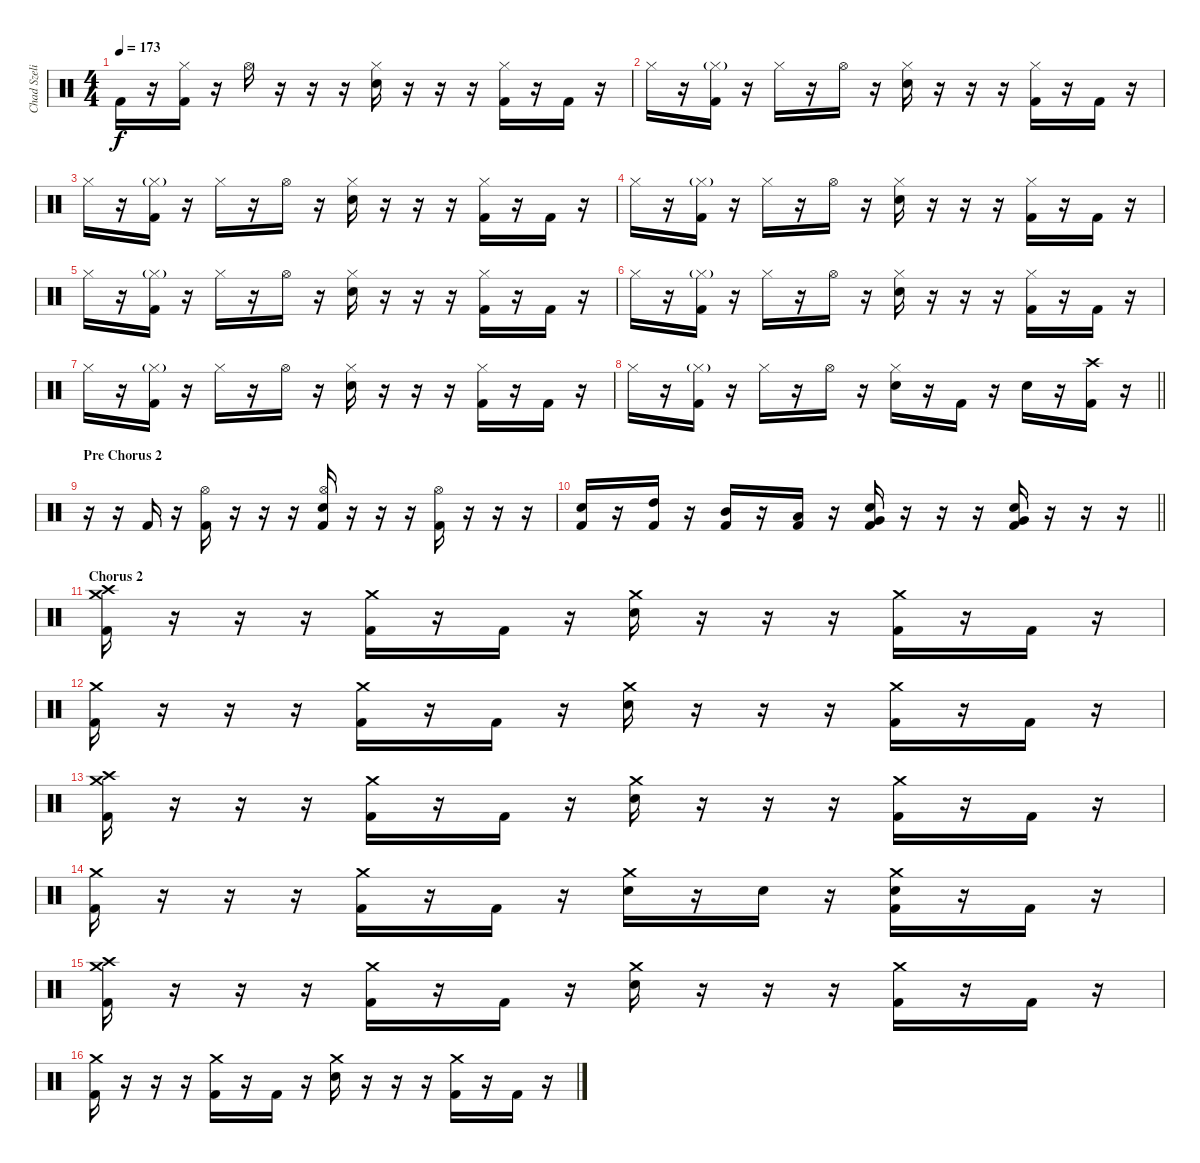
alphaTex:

\track ("Chad Szeliga" "Chad Szeli") {instrument percussion}
\staff {score}
\articulation defaults
\ts (4 4)
\tempo 173
\clef neutral
\ks c "Kick (hit) 2".16{dy f}
r.16 ("Hi-Hat (closed)" "Kick (hit) 2").16 r.16 "Hi-Hat (open)".16 r.16 r.16 r.16 ("Hi-Hat (closed)" "Electric Snare (hit)").16 r.16 r.16 r.16 ("Hi-Hat (closed)" "Kick (hit) 2").16 r.16 "Kick (hit) 2".16 r.16 |
"Hi-Hat (closed)".16 r.16 ("Hi-Hat (closed)"{g} "Kick (hit) 2").16 r.16 "Hi-Hat (closed)".16 r.16 "Hi-Hat (open)".16 r.16 ("Hi-Hat (closed)" "Electric Snare (hit)").16 r.16 r.16 r.16 ("Hi-Hat (closed)" "Kick (hit) 2").16 r.16 "Kick (hit) 2".16 r.16 |
"Hi-Hat (closed)".16 r.16 ("Hi-Hat (closed)"{g} "Kick (hit) 2").16 r.16 "Hi-Hat (closed)".16 r.16 "Hi-Hat (open)".16 r.16 ("Hi-Hat (closed)" "Electric Snare (hit)").16 r.16 r.16 r.16 ("Hi-Hat (closed)" "Kick (hit) 2").16 r.16 "Kick (hit) 2".16 r.16 |
"Hi-Hat (closed)".16 r.16 ("Hi-Hat (closed)"{g} "Kick (hit) 2").16 r.16 "Hi-Hat (closed)".16 r.16 "Hi-Hat (open)".16 r.16 ("Hi-Hat (closed)" "Electric Snare (hit)").16 r.16 r.16 r.16 ("Hi-Hat (closed)" "Kick (hit) 2").16 r.16 "Kick (hit) 2".16 r.16 |
"Hi-Hat (closed)".16 r.16 ("Hi-Hat (closed)"{g} "Kick (hit) 2").16 r.16 "Hi-Hat (closed)".16 r.16 "Hi-Hat (open)".16 r.16 ("Hi-Hat (closed)" "Electric Snare (hit)").16 r.16 r.16 r.16 ("Hi-Hat (closed)" "Kick (hit) 2").16 r.16 "Kick (hit) 2".16 r.16 |
"Hi-Hat (closed)".16 r.16 ("Hi-Hat (closed)"{g} "Kick (hit) 2").16 r.16 "Hi-Hat (closed)".16 r.16 "Hi-Hat (open)".16 r.16 ("Hi-Hat (closed)" "Electric Snare (hit)").16 r.16 r.16 r.16 ("Hi-Hat (closed)" "Kick (hit) 2").16 r.16 "Kick (hit) 2".16 r.16 |
"Hi-Hat (closed)".16 r.16 ("Hi-Hat (closed)"{g} "Kick (hit) 2").16 r.16 "Hi-Hat (closed)".16 r.16 "Hi-Hat (open)".16 r.16 ("Hi-Hat (closed)" "Electric Snare (hit)").16 r.16 r.16 r.16 ("Hi-Hat (closed)" "Kick (hit) 2").16 r.16 "Kick (hit) 2".16 r.16 |
\barLineRight lightlight "Hi-Hat (closed)".16
r.16 ("Hi-Hat (closed)"{g} "Kick (hit) 2").16 r.16 "Hi-Hat (closed)".16 r.16 "Hi-Hat (open)".16 r.16 ("Hi-Hat (closed)" "Electric Snare (hit)").16 r.16 "Kick (hit) 2".16 r.16 "Electric Snare (hit)".16 r.16 ("Crash high (hit)" "Kick (hit) 2").16 r.16 |
\section ("" "Pre Chorus 2")
r.16 r.16 "Kick (hit) 2".16 r.16 ("Hi-Hat (open)" "Kick (hit) 2").16 r.16 r.16 r.16 ("Hi-Hat (open)" "Electric Snare (hit)" "Kick (hit) 2").16 r.16 r.16 r.16 ("Hi-Hat (open)" "Kick (hit) 2").16 r.16 r.16 r.16 |
\barLineRight lightlight
("Electric Snare (hit)" "Kick (hit) 2").16 r.16 ("High Tom (hit)" "Kick (hit) 2").16 r.16 ("Mid Tom (hit)" "Kick (hit) 2").16 r.16 ("Low Tom (hit)" "Kick (hit) 2").16 r.16 ("Electric Snare (hit)" "Very Low Tom (hit)" "Kick (hit) 2").16 r.16 r.16 r.16 ("Electric Snare (hit)" "Very Low Tom (hit)" "Kick (hit) 2").16 r.16 r.16 r.16 |
\section ("" "Chorus 2")
("Crash medium (hit)" "Crash high (hit)" "Kick (hit) 2").16 r.16 r.16 r.16 ("Crash medium (hit)" "Kick (hit) 2").16 r.16 "Kick (hit) 2".16 r.16 ("Crash medium (hit)" "Electric Snare (hit)").16 r.16 r.16 r.16 ("Crash medium (hit)" "Kick (hit) 2").16 r.16 "Kick (hit) 2".16 r.16 |
("Crash medium (hit)" "Kick (hit) 2").16 r.16 r.16 r.16 ("Crash medium (hit)" "Kick (hit) 2").16 r.16 "Kick (hit) 2".16 r.16 ("Crash medium (hit)" "Electric Snare (hit)").16 r.16 r.16 r.16 ("Crash medium (hit)" "Kick (hit) 2").16 r.16 "Kick (hit) 2".16 r.16 |
("Crash medium (hit)" "Crash high (hit)" "Kick (hit) 2").16 r.16 r.16 r.16 ("Crash medium (hit)" "Kick (hit) 2").16 r.16 "Kick (hit) 2".16 r.16 ("Crash medium (hit)" "Electric Snare (hit)").16 r.16 r.16 r.16 ("Crash medium (hit)" "Kick (hit) 2").16 r.16 "Kick (hit) 2".16 r.16 |
("Crash medium (hit)" "Kick (hit) 2").16 r.16 r.16 r.16 ("Crash medium (hit)" "Kick (hit) 2").16 r.16 "Kick (hit) 2".16 r.16 ("Crash medium (hit)" "Electric Snare (hit)").16 r.16 "Electric Snare (hit)".16 r.16 ("Crash medium (hit)" "Electric Snare (hit)" "Kick (hit) 2").16 r.16 "Kick (hit) 2".16 r.16 |
("Crash medium (hit)" "Crash high (hit)" "Kick (hit) 2").16 r.16 r.16 r.16 ("Crash medium (hit)" "Kick (hit) 2").16 r.16 "Kick (hit) 2".16 r.16 ("Crash medium (hit)" "Electric Snare (hit)").16 r.16 r.16 r.16 ("Crash medium (hit)" "Kick (hit) 2").16 r.16 "Kick (hit) 2".16 r.16 |
("Crash medium (hit)" "Kick (hit) 2").16 r.16 r.16 r.16 ("Crash medium (hit)" "Kick (hit) 2").16 r.16 "Kick (hit) 2".16 r.16 ("Crash medium (hit)" "Electric Snare (hit)").16 r.16 r.16 r.16 ("Crash medium (hit)" "Kick (hit) 2").16 r.16 "Kick (hit) 2".16 r.16
